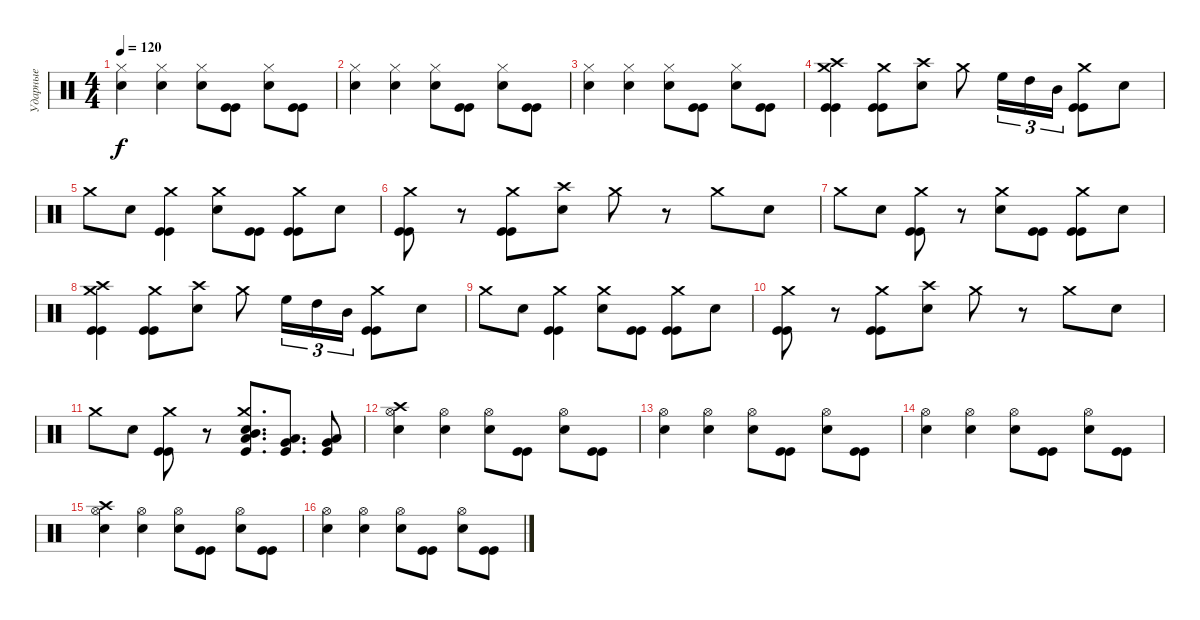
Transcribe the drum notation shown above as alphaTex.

\track ("Ударные" "Ударные") {instrument percussion}
\staff {score}
\articulation defaults
\ts (4 4)
\tempo 120
\clef neutral
\ks c
("Hi-Hat (closed)" "Electric Snare (hit)").4{dy f} ("Hi-Hat (closed)" "Electric Snare (hit)").4 ("Hi-Hat (closed)" "Electric Snare (hit)").8 ("Kick (hit)" "Kick (hit)").8 ("Hi-Hat (closed)" "Electric Snare (hit)").8 ("Kick (hit)" "Kick (hit)").8 |
("Hi-Hat (closed)" "Electric Snare (hit)").4 ("Hi-Hat (closed)" "Electric Snare (hit)").4 ("Hi-Hat (closed)" "Electric Snare (hit)").8 ("Kick (hit)" "Kick (hit)").8 ("Hi-Hat (closed)" "Electric Snare (hit)").8 ("Kick (hit)" "Kick (hit)").8 |
("Hi-Hat (closed)" "Electric Snare (hit)").4 ("Hi-Hat (closed)" "Electric Snare (hit)").4 ("Hi-Hat (closed)" "Electric Snare (hit)").8 ("Kick (hit)" "Kick (hit)").8 ("Hi-Hat (closed)" "Electric Snare (hit)").8 ("Kick (hit)" "Kick (hit)").8 |
("Crash high (hit)" "Crash medium (hit)" "Kick (hit)" "Kick (hit)").4 ("Crash medium (hit)" "Kick (hit)" "Kick (hit)").8 ("Crash high (hit)" "Electric Snare (hit)").8 "Crash medium (hit)".8 "High Floor Tom (hit)".16{tu (3 2)} "High Tom (hit)".16{tu (3 2)} "Mid Tom (hit)".16{tu (3 2)} ("Crash medium (hit)" "Kick (hit)" "Kick (hit)").8 "Electric Snare (hit)".8 |
"Crash medium (hit)".8 "Electric Snare (hit)".8 ("Crash medium (hit)" "Kick (hit)" "Kick (hit)").4 ("Crash medium (hit)" "Electric Snare (hit)").8 ("Kick (hit)" "Kick (hit)").8 ("Crash medium (hit)" "Kick (hit)" "Kick (hit)").8 "Electric Snare (hit)".8 |
("Crash medium (hit)" "Kick (hit)" "Kick (hit)").8 r.8 ("Crash medium (hit)" "Kick (hit)" "Kick (hit)").8 ("Crash high (hit)" "Electric Snare (hit)").8 "Crash medium (hit)".8 r.8 "Crash medium (hit)".8 "Electric Snare (hit)".8 |
"Crash medium (hit)".8 "Electric Snare (hit)".8 ("Crash medium (hit)" "Kick (hit)" "Kick (hit)").8 r.8 ("Crash medium (hit)" "Electric Snare (hit)").8 ("Kick (hit)" "Kick (hit)").8 ("Crash medium (hit)" "Kick (hit)" "Kick (hit)").8 "Electric Snare (hit)".8 |
("Crash high (hit)" "Crash medium (hit)" "Kick (hit)" "Kick (hit)").4 ("Crash medium (hit)" "Kick (hit)" "Kick (hit)").8 ("Crash high (hit)" "Electric Snare (hit)").8 "Crash medium (hit)".8 "High Floor Tom (hit)".16{tu (3 2)} "High Tom (hit)".16{tu (3 2)} "Mid Tom (hit)".16{tu (3 2)} ("Crash medium (hit)" "Kick (hit)" "Kick (hit)").8 "Electric Snare (hit)".8 |
"Crash medium (hit)".8 "Electric Snare (hit)".8 ("Crash medium (hit)" "Kick (hit)" "Kick (hit)").4 ("Crash medium (hit)" "Electric Snare (hit)").8 ("Kick (hit)" "Kick (hit)").8 ("Crash medium (hit)" "Kick (hit)" "Kick (hit)").8 "Electric Snare (hit)".8 |
("Crash medium (hit)" "Kick (hit)" "Kick (hit)").8 r.8 ("Crash medium (hit)" "Kick (hit)" "Kick (hit)").8 ("Crash high (hit)" "Electric Snare (hit)").8 "Crash medium (hit)".8 r.8 "Crash medium (hit)".8 "Electric Snare (hit)".8 |
"Crash medium (hit)".8 "Electric Snare (hit)".8 ("Crash medium (hit)" "Kick (hit)" "Kick (hit)").8 r.8 ("Crash medium (hit)" "Electric Snare (hit)" "Low Tom (hit)" "Mid Tom (hit)" "Kick (hit)").8{d} ("Very Low Tom (hit)" "Low Tom (hit)" "Kick (hit)").8{d} ("Very Low Tom (hit)" "Low Floor Tom (hit)" "Kick (hit)").8 |
("Crash high (hit)" "Hi-Hat (open)" "Electric Snare (hit)").4 ("Hi-Hat (open)" "Electric Snare (hit)").4 ("Hi-Hat (open)" "Electric Snare (hit)").8 ("Kick (hit)" "Kick (hit)").8 ("Hi-Hat (open)" "Electric Snare (hit)").8 ("Kick (hit)" "Kick (hit)").8 |
("Hi-Hat (open)" "Electric Snare (hit)").4 ("Hi-Hat (open)" "Electric Snare (hit)").4 ("Hi-Hat (open)" "Electric Snare (hit)").8 ("Kick (hit)" "Kick (hit)").8 ("Hi-Hat (open)" "Electric Snare (hit)").8 ("Kick (hit)" "Kick (hit)").8 |
("Hi-Hat (open)" "Electric Snare (hit)").4 ("Hi-Hat (open)" "Electric Snare (hit)").4 ("Hi-Hat (open)" "Electric Snare (hit)").8 ("Kick (hit)" "Kick (hit)").8 ("Hi-Hat (open)" "Electric Snare (hit)").8 ("Kick (hit)" "Kick (hit)").8 |
("Crash high (hit)" "Hi-Hat (open)" "Electric Snare (hit)").4 ("Hi-Hat (open)" "Electric Snare (hit)").4 ("Hi-Hat (open)" "Electric Snare (hit)").8 ("Kick (hit)" "Kick (hit)").8 ("Hi-Hat (open)" "Electric Snare (hit)").8 ("Kick (hit)" "Kick (hit)").8 |
("Hi-Hat (open)" "Electric Snare (hit)").4 ("Hi-Hat (open)" "Electric Snare (hit)").4 ("Hi-Hat (open)" "Electric Snare (hit)").8 ("Kick (hit)" "Kick (hit)").8 ("Hi-Hat (open)" "Electric Snare (hit)").8 ("Kick (hit)" "Kick (hit)").8
